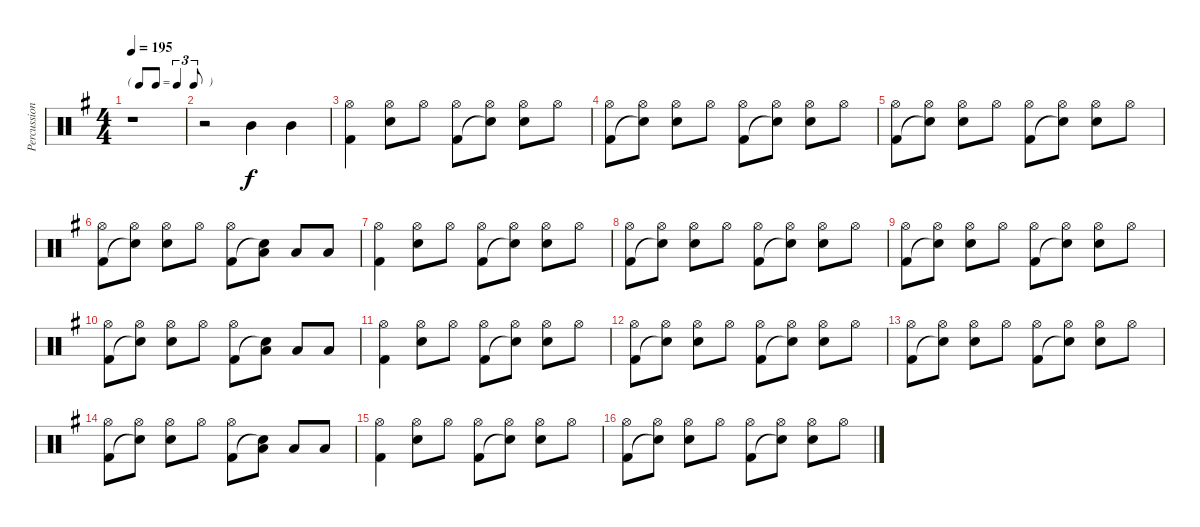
\track ("Percussion" "Percussion") {instrument percussion}
\staff {score}
\articulation defaults
\ts (4 4)
\tf triplet8th
\tempo 195
\clef neutral
\ks g
r.1{dy f} |
r.2 "Mid Tom (hit)".4 "Mid Tom (hit)".4 |
("Hi-Hat (open)" "Kick (hit) 2").4 ("Hi-Hat (open)" "Snare (hit) 2").8 "Hi-Hat (open)".8 ("Hi-Hat (open)" "Kick (hit) 2").8 ("Hi-Hat (open)" "Snare (hit)"{t}).8 ("Hi-Hat (open)" "Snare (hit) 2").8 "Hi-Hat (open)".8 |
("Hi-Hat (open)" "Kick (hit) 2").8 ("Hi-Hat (open)" "Snare (hit)"{t}).8 ("Hi-Hat (open)" "Snare (hit) 2").8 "Hi-Hat (open)".8 ("Hi-Hat (open)" "Kick (hit) 2").8 ("Hi-Hat (open)" "Snare (hit)"{t}).8 ("Hi-Hat (open)" "Snare (hit) 2").8 "Hi-Hat (open)".8 |
("Hi-Hat (open)" "Kick (hit) 2").8 ("Hi-Hat (open)" "Snare (hit)"{t}).8 ("Hi-Hat (open)" "Snare (hit) 2").8 "Hi-Hat (open)".8 ("Hi-Hat (open)" "Kick (hit) 2").8 ("Hi-Hat (open)" "Snare (hit)"{t}).8 ("Hi-Hat (open)" "Snare (hit) 2").8 "Hi-Hat (open)".8 |
("Hi-Hat (open)" "Kick (hit) 2").8 ("Hi-Hat (open)" "Snare (hit)"{t}).8 ("Hi-Hat (open)" "Snare (hit) 2").8 "Hi-Hat (open)".8 ("Hi-Hat (open)" "Kick (hit) 2").8 ("Low Tom (hit)" "Snare (hit)"{t}).8 "Low Tom (hit)".8 "Low Tom (hit)".8 |
("Hi-Hat (open)" "Kick (hit) 2").4 ("Hi-Hat (open)" "Snare (hit) 2").8 "Hi-Hat (open)".8 ("Hi-Hat (open)" "Kick (hit) 2").8 ("Hi-Hat (open)" "Snare (hit)"{t}).8 ("Hi-Hat (open)" "Snare (hit) 2").8 "Hi-Hat (open)".8 |
("Hi-Hat (open)" "Kick (hit) 2").8 ("Hi-Hat (open)" "Snare (hit)"{t}).8 ("Hi-Hat (open)" "Snare (hit) 2").8 "Hi-Hat (open)".8 ("Hi-Hat (open)" "Kick (hit) 2").8 ("Hi-Hat (open)" "Snare (hit)"{t}).8 ("Hi-Hat (open)" "Snare (hit) 2").8 "Hi-Hat (open)".8 |
("Hi-Hat (open)" "Kick (hit) 2").8 ("Hi-Hat (open)" "Snare (hit)"{t}).8 ("Hi-Hat (open)" "Snare (hit) 2").8 "Hi-Hat (open)".8 ("Hi-Hat (open)" "Kick (hit) 2").8 ("Hi-Hat (open)" "Snare (hit)"{t}).8 ("Hi-Hat (open)" "Snare (hit) 2").8 "Hi-Hat (open)".8 |
("Hi-Hat (open)" "Kick (hit) 2").8 ("Hi-Hat (open)" "Snare (hit)"{t}).8 ("Hi-Hat (open)" "Snare (hit) 2").8 "Hi-Hat (open)".8 ("Hi-Hat (open)" "Kick (hit) 2").8 ("Low Tom (hit)" "Snare (hit)"{t}).8 "Low Tom (hit)".8 "Low Tom (hit)".8 |
("Hi-Hat (open)" "Kick (hit) 2").4 ("Hi-Hat (open)" "Snare (hit) 2").8 "Hi-Hat (open)".8 ("Hi-Hat (open)" "Kick (hit) 2").8 ("Hi-Hat (open)" "Snare (hit)"{t}).8 ("Hi-Hat (open)" "Snare (hit) 2").8 "Hi-Hat (open)".8 |
("Hi-Hat (open)" "Kick (hit) 2").8 ("Hi-Hat (open)" "Snare (hit)"{t}).8 ("Hi-Hat (open)" "Snare (hit) 2").8 "Hi-Hat (open)".8 ("Hi-Hat (open)" "Kick (hit) 2").8 ("Hi-Hat (open)" "Snare (hit)"{t}).8 ("Hi-Hat (open)" "Snare (hit) 2").8 "Hi-Hat (open)".8 |
("Hi-Hat (open)" "Kick (hit) 2").8 ("Hi-Hat (open)" "Snare (hit)"{t}).8 ("Hi-Hat (open)" "Snare (hit) 2").8 "Hi-Hat (open)".8 ("Hi-Hat (open)" "Kick (hit) 2").8 ("Hi-Hat (open)" "Snare (hit)"{t}).8 ("Hi-Hat (open)" "Snare (hit) 2").8 "Hi-Hat (open)".8 |
("Hi-Hat (open)" "Kick (hit) 2").8 ("Hi-Hat (open)" "Snare (hit)"{t}).8 ("Hi-Hat (open)" "Snare (hit) 2").8 "Hi-Hat (open)".8 ("Hi-Hat (open)" "Kick (hit) 2").8 ("Low Tom (hit)" "Snare (hit)"{t}).8 "Low Tom (hit)".8 "Low Tom (hit)".8 |
("Hi-Hat (open)" "Kick (hit) 2").4 ("Hi-Hat (open)" "Snare (hit) 2").8 "Hi-Hat (open)".8 ("Hi-Hat (open)" "Kick (hit) 2").8 ("Hi-Hat (open)" "Snare (hit)"{t}).8 ("Hi-Hat (open)" "Snare (hit) 2").8 "Hi-Hat (open)".8 |
("Hi-Hat (open)" "Kick (hit) 2").8 ("Hi-Hat (open)" "Snare (hit)"{t}).8 ("Hi-Hat (open)" "Snare (hit) 2").8 "Hi-Hat (open)".8 ("Hi-Hat (open)" "Kick (hit) 2").8 ("Hi-Hat (open)" "Snare (hit)"{t}).8 ("Hi-Hat (open)" "Snare (hit) 2").8 "Hi-Hat (open)".8
